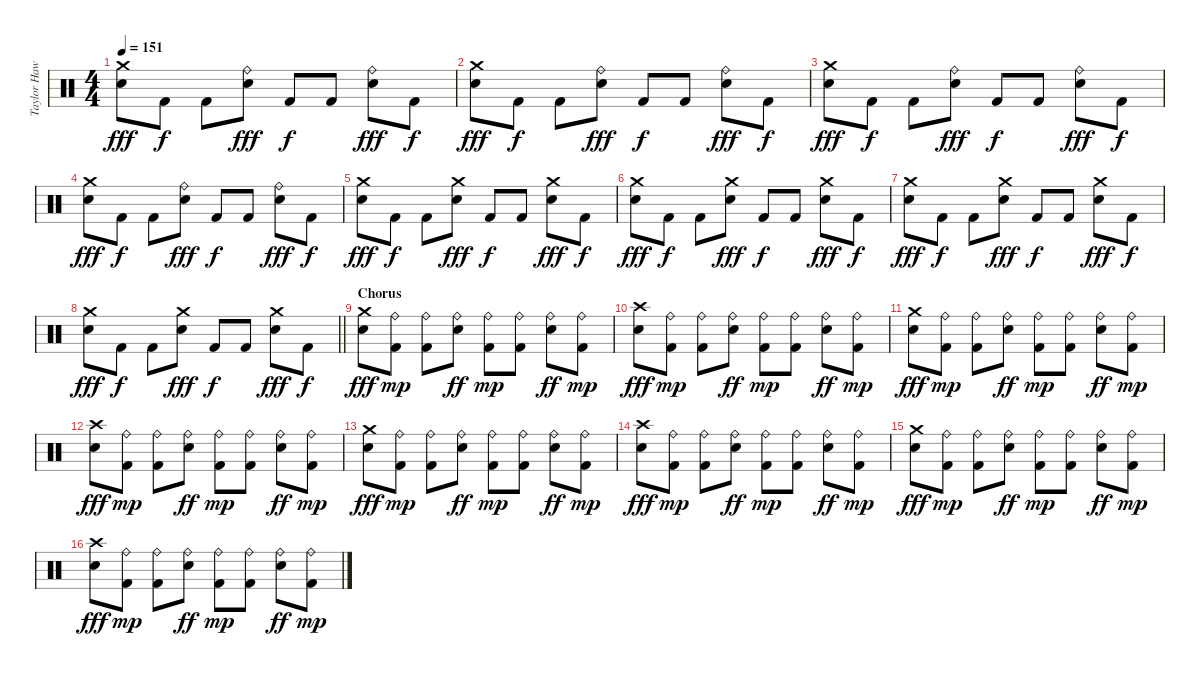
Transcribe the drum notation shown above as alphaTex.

\track ("Taylor Hawkins" "Taylor Haw") {instrument percussion}
\staff {score}
\articulation defaults
\ts (4 4)
\tempo 151
\clef neutral
\ks c
("Crash medium (hit)" "Electric Snare (hit)").8{dy fff} "Kick (hit) 2".8{dy f} "Kick (hit) 2".8 ("Ride (bell)" "Electric Snare (hit)").8{dy fff} "Kick (hit) 2".8{dy f} "Kick (hit) 2".8 ("Ride (bell)" "Electric Snare (hit)").8{dy fff} "Kick (hit) 2".8{dy f} |
("Crash medium (hit)" "Electric Snare (hit)").8{dy fff} "Kick (hit) 2".8{dy f} "Kick (hit) 2".8 ("Ride (bell)" "Electric Snare (hit)").8{dy fff} "Kick (hit) 2".8{dy f} "Kick (hit) 2".8 ("Ride (bell)" "Electric Snare (hit)").8{dy fff} "Kick (hit) 2".8{dy f} |
("Crash medium (hit)" "Electric Snare (hit)").8{dy fff} "Kick (hit) 2".8{dy f} "Kick (hit) 2".8 ("Ride (bell)" "Electric Snare (hit)").8{dy fff} "Kick (hit) 2".8{dy f} "Kick (hit) 2".8 ("Ride (bell)" "Electric Snare (hit)").8{dy fff} "Kick (hit) 2".8{dy f} |
("Crash medium (hit)" "Electric Snare (hit)").8{dy fff} "Kick (hit) 2".8{dy f} "Kick (hit) 2".8 ("Ride (bell)" "Electric Snare (hit)").8{dy fff} "Kick (hit) 2".8{dy f} "Kick (hit) 2".8 ("Ride (bell)" "Electric Snare (hit)").8{dy fff} "Kick (hit) 2".8{dy f} |
("Crash medium (hit)" "Electric Snare (hit)").8{dy fff} "Kick (hit) 2".8{dy f} "Kick (hit) 2".8 ("Crash medium (hit)" "Electric Snare (hit)").8{dy fff} "Kick (hit) 2".8{dy f} "Kick (hit) 2".8 ("Crash medium (hit)" "Electric Snare (hit)").8{dy fff} "Kick (hit) 2".8{dy f} |
("Crash medium (hit)" "Electric Snare (hit)").8{dy fff} "Kick (hit) 2".8{dy f} "Kick (hit) 2".8 ("Crash medium (hit)" "Electric Snare (hit)").8{dy fff} "Kick (hit) 2".8{dy f} "Kick (hit) 2".8 ("Crash medium (hit)" "Electric Snare (hit)").8{dy fff} "Kick (hit) 2".8{dy f} |
("Crash medium (hit)" "Electric Snare (hit)").8{dy fff} "Kick (hit) 2".8{dy f} "Kick (hit) 2".8 ("Crash medium (hit)" "Electric Snare (hit)").8{dy fff} "Kick (hit) 2".8{dy f} "Kick (hit) 2".8 ("Crash medium (hit)" "Electric Snare (hit)").8{dy fff} "Kick (hit) 2".8{dy f} |
\barLineRight lightlight
("Crash medium (hit)" "Electric Snare (hit)").8{dy fff} "Kick (hit) 2".8{dy f} "Kick (hit) 2".8 ("Crash medium (hit)" "Electric Snare (hit)").8{dy fff} "Kick (hit) 2".8{dy f} "Kick (hit) 2".8 ("Crash medium (hit)" "Electric Snare (hit)").8{dy fff} "Kick (hit) 2".8{dy f} |
\section ("" "Chorus")
("Crash medium (hit)" "Electric Snare (hit)").8{dy fff} ("Ride (bell)" "Kick (hit) 2").8{dy mp} ("Ride (bell)" "Kick (hit) 2").8 ("Ride (bell)" "Electric Snare (hit)").8{dy ff} ("Ride (bell)" "Kick (hit) 2").8{dy mp} ("Ride (bell)" "Kick (hit) 2").8 ("Ride (bell)" "Electric Snare (hit)").8{dy ff} ("Ride (bell)" "Kick (hit) 2").8{dy mp} |
("Crash high (hit)" "Electric Snare (hit)").8{dy fff} ("Ride (bell)" "Kick (hit) 2").8{dy mp} ("Ride (bell)" "Kick (hit) 2").8 ("Ride (bell)" "Electric Snare (hit)").8{dy ff} ("Ride (bell)" "Kick (hit) 2").8{dy mp} ("Ride (bell)" "Kick (hit) 2").8 ("Ride (bell)" "Electric Snare (hit)").8{dy ff} ("Ride (bell)" "Kick (hit) 2").8{dy mp} |
("Crash medium (hit)" "Electric Snare (hit)").8{dy fff} ("Ride (bell)" "Kick (hit) 2").8{dy mp} ("Ride (bell)" "Kick (hit) 2").8 ("Ride (bell)" "Electric Snare (hit)").8{dy ff} ("Ride (bell)" "Kick (hit) 2").8{dy mp} ("Ride (bell)" "Kick (hit) 2").8 ("Ride (bell)" "Electric Snare (hit)").8{dy ff} ("Ride (bell)" "Kick (hit) 2").8{dy mp} |
("Crash high (hit)" "Electric Snare (hit)").8{dy fff} ("Ride (bell)" "Kick (hit) 2").8{dy mp} ("Ride (bell)" "Kick (hit) 2").8 ("Ride (bell)" "Electric Snare (hit)").8{dy ff} ("Ride (bell)" "Kick (hit) 2").8{dy mp} ("Ride (bell)" "Kick (hit) 2").8 ("Ride (bell)" "Electric Snare (hit)").8{dy ff} ("Ride (bell)" "Kick (hit) 2").8{dy mp} |
("Crash medium (hit)" "Electric Snare (hit)").8{dy fff} ("Ride (bell)" "Kick (hit) 2").8{dy mp} ("Ride (bell)" "Kick (hit) 2").8 ("Ride (bell)" "Electric Snare (hit)").8{dy ff} ("Ride (bell)" "Kick (hit) 2").8{dy mp} ("Ride (bell)" "Kick (hit) 2").8 ("Ride (bell)" "Electric Snare (hit)").8{dy ff} ("Ride (bell)" "Kick (hit) 2").8{dy mp} |
("Crash high (hit)" "Electric Snare (hit)").8{dy fff} ("Ride (bell)" "Kick (hit) 2").8{dy mp} ("Ride (bell)" "Kick (hit) 2").8 ("Ride (bell)" "Electric Snare (hit)").8{dy ff} ("Ride (bell)" "Kick (hit) 2").8{dy mp} ("Ride (bell)" "Kick (hit) 2").8 ("Ride (bell)" "Electric Snare (hit)").8{dy ff} ("Ride (bell)" "Kick (hit) 2").8{dy mp} |
("Crash medium (hit)" "Electric Snare (hit)").8{dy fff} ("Ride (bell)" "Kick (hit) 2").8{dy mp} ("Ride (bell)" "Kick (hit) 2").8 ("Ride (bell)" "Electric Snare (hit)").8{dy ff} ("Ride (bell)" "Kick (hit) 2").8{dy mp} ("Ride (bell)" "Kick (hit) 2").8 ("Ride (bell)" "Electric Snare (hit)").8{dy ff} ("Ride (bell)" "Kick (hit) 2").8{dy mp} |
("Crash high (hit)" "Electric Snare (hit)").8{dy fff} ("Ride (bell)" "Kick (hit) 2").8{dy mp} ("Ride (bell)" "Kick (hit) 2").8 ("Ride (bell)" "Electric Snare (hit)").8{dy ff} ("Ride (bell)" "Kick (hit) 2").8{dy mp} ("Ride (bell)" "Kick (hit) 2").8 ("Ride (bell)" "Electric Snare (hit)").8{dy ff} ("Ride (bell)" "Kick (hit) 2").8{dy mp}
